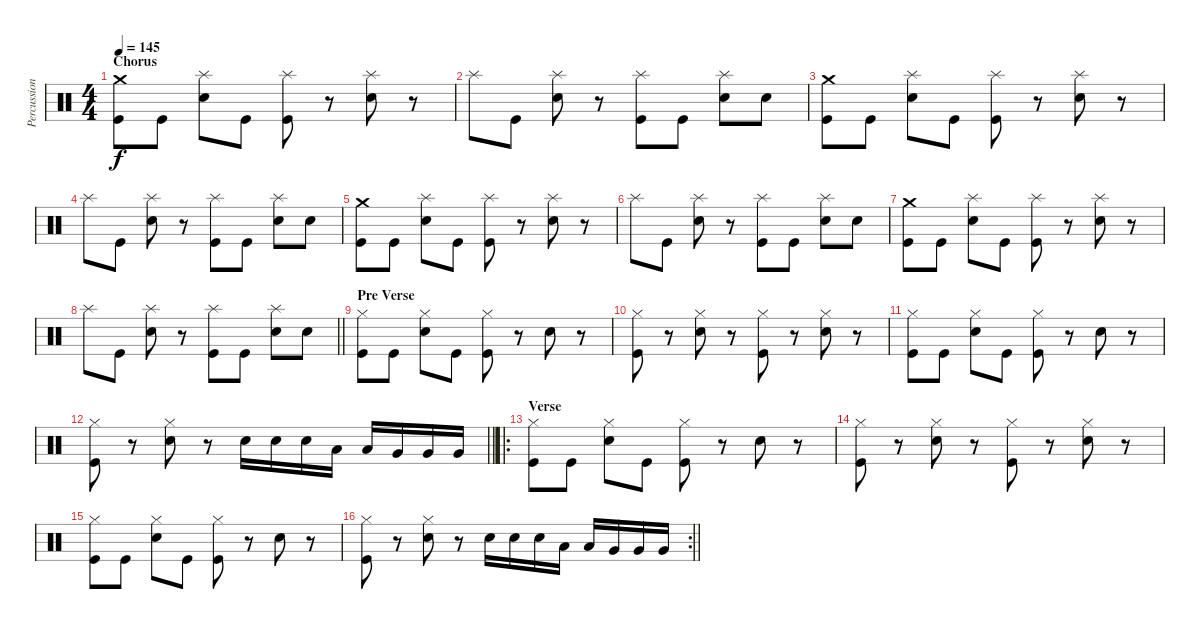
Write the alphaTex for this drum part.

\track ("Percussion" "Percussion") {instrument percussion}
\staff {score}
\articulation defaults
\ts (4 4)
\section ("" "Chorus")
\tempo 145
\clef neutral
\ks c
("Crash medium (hit)" "Kick (hit)").8{dy f} "Kick (hit)".8 ("Splash (hit)" "Snare (hit) 2").8 "Kick (hit)".8 ("Splash (hit)" "Kick (hit)").8 r.8 ("Splash (hit)" "Snare (hit) 2").8 r.8 |
"Splash (hit)".8 "Kick (hit)".8 ("Splash (hit)" "Snare (hit) 2").8 r.8 ("Splash (hit)" "Kick (hit)").8 "Kick (hit)".8 ("Splash (hit)" "Snare (hit) 2").8 "Snare (hit) 2".8 |
("Crash medium (hit)" "Kick (hit)").8 "Kick (hit)".8 ("Splash (hit)" "Snare (hit) 2").8 "Kick (hit)".8 ("Splash (hit)" "Kick (hit)").8 r.8 ("Splash (hit)" "Snare (hit) 2").8 r.8 |
"Splash (hit)".8 "Kick (hit)".8 ("Splash (hit)" "Snare (hit) 2").8 r.8 ("Splash (hit)" "Kick (hit)").8 "Kick (hit)".8 ("Splash (hit)" "Snare (hit) 2").8 "Snare (hit) 2".8 |
("Crash medium (hit)" "Kick (hit)").8 "Kick (hit)".8 ("Splash (hit)" "Snare (hit) 2").8 "Kick (hit)".8 ("Splash (hit)" "Kick (hit)").8 r.8 ("Splash (hit)" "Snare (hit) 2").8 r.8 |
"Splash (hit)".8 "Kick (hit)".8 ("Splash (hit)" "Snare (hit) 2").8 r.8 ("Splash (hit)" "Kick (hit)").8 "Kick (hit)".8 ("Splash (hit)" "Snare (hit) 2").8 "Snare (hit) 2".8 |
("Crash medium (hit)" "Kick (hit)").8 "Kick (hit)".8 ("Splash (hit)" "Snare (hit) 2").8 "Kick (hit)".8 ("Splash (hit)" "Kick (hit)").8 r.8 ("Splash (hit)" "Snare (hit) 2").8 r.8 |
\barLineRight lightlight "Splash (hit)".8 "Kick (hit)".8
("Splash (hit)" "Snare (hit) 2").8 r.8 ("Splash (hit)" "Kick (hit)").8 "Kick (hit)".8 ("Splash (hit)" "Snare (hit) 2").8 "Snare (hit) 2".8 |
\section ("" "Pre Verse")
("Hi-Hat (closed)" "Kick (hit)").8 "Kick (hit)".8 ("Hi-Hat (closed)" "Snare (hit) 2").8 "Kick (hit)".8 ("Hi-Hat (closed)" "Kick (hit)").8 r.8 "Snare (hit) 2".8 r.8 |
("Hi-Hat (closed)" "Kick (hit)").8 r.8 ("Hi-Hat (closed)" "Snare (hit) 2").8 r.8 ("Hi-Hat (closed)" "Kick (hit)").8 r.8 ("Hi-Hat (closed)" "Snare (hit) 2").8 r.8 |
("Hi-Hat (closed)" "Kick (hit)").8 "Kick (hit)".8 ("Hi-Hat (closed)" "Snare (hit) 2").8 "Kick (hit)".8 ("Hi-Hat (closed)" "Kick (hit)").8 r.8 "Snare (hit) 2".8 r.8 |
\barLineRight lightlight
("Hi-Hat (closed)" "Kick (hit)").8 r.8 ("Hi-Hat (closed)" "Snare (hit) 2").8 r.8 "Snare (hit) 2".16 "Snare (hit) 2".16 "Snare (hit) 2".16 "Low Tom (hit)".16 "Low Tom (hit)".16 "Very Low Tom (hit)".16 "Very Low Tom (hit)".16 "Very Low Tom (hit)".16 |
\ro
\section ("" "Verse")
("Hi-Hat (closed)" "Kick (hit)").8 "Kick (hit)".8 ("Hi-Hat (closed)" "Snare (hit) 2").8 "Kick (hit)".8 ("Hi-Hat (closed)" "Kick (hit)").8 r.8 "Snare (hit) 2".8 r.8 |
("Hi-Hat (closed)" "Kick (hit)").8 r.8 ("Hi-Hat (closed)" "Snare (hit) 2").8 r.8 ("Hi-Hat (closed)" "Kick (hit)").8 r.8 ("Hi-Hat (closed)" "Snare (hit) 2").8 r.8 |
("Hi-Hat (closed)" "Kick (hit)").8 "Kick (hit)".8 ("Hi-Hat (closed)" "Snare (hit) 2").8 "Kick (hit)".8 ("Hi-Hat (closed)" "Kick (hit)").8 r.8 "Snare (hit) 2".8 r.8 |
\rc 2
\barLineRight lightlight
("Hi-Hat (closed)" "Kick (hit)").8 r.8 ("Hi-Hat (closed)" "Snare (hit) 2").8 r.8 "Snare (hit) 2".16 "Snare (hit) 2".16 "Snare (hit) 2".16 "Low Tom (hit)".16 "Low Tom (hit)".16 "Very Low Tom (hit)".16 "Very Low Tom (hit)".16 "Very Low Tom (hit)".16
